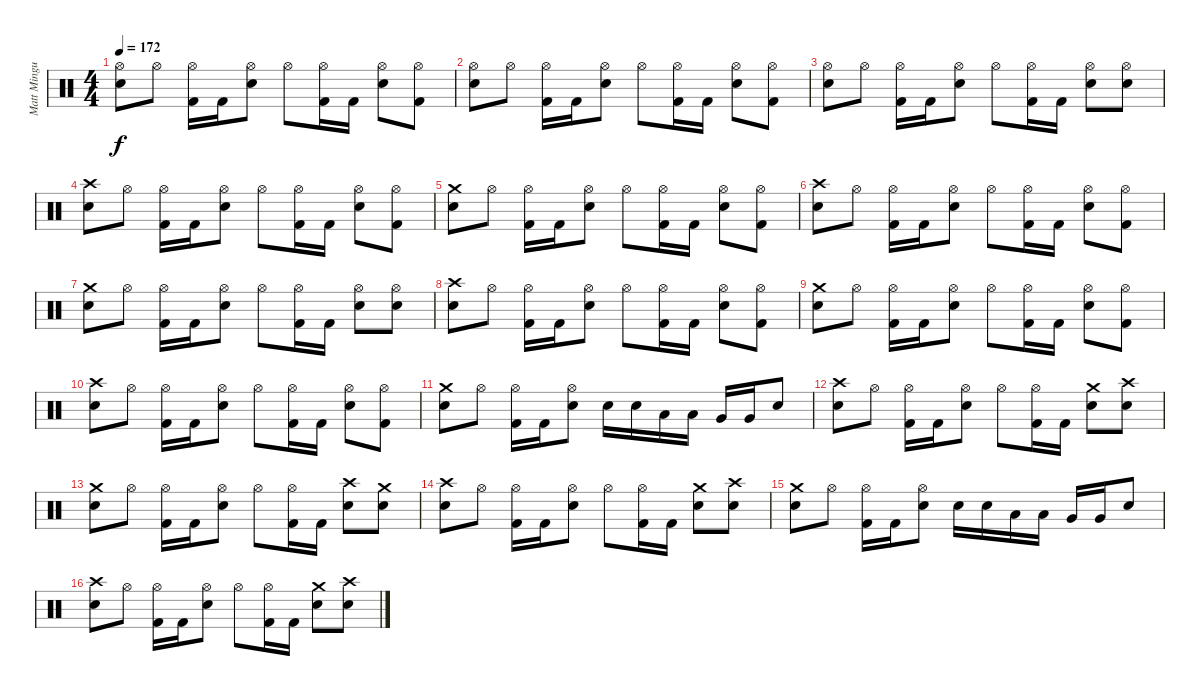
\track ("Matt Mingus (Drum Kit)" "Matt Mingu") {instrument percussion}
\staff {score}
\articulation defaults
\ts (4 4)
\tempo 172
\clef neutral
\ks c
("Hi-Hat (open)" "Electric Snare (hit)").8{dy f} "Hi-Hat (open)".8 ("Hi-Hat (open)" "Kick (hit) 2").16 "Kick (hit) 2".16 ("Hi-Hat (open)" "Electric Snare (hit)").8 "Hi-Hat (open)".8 ("Hi-Hat (open)" "Kick (hit) 2").16 "Kick (hit) 2".16 ("Hi-Hat (open)" "Electric Snare (hit)").8 ("Hi-Hat (open)" "Kick (hit) 2").8 |
("Hi-Hat (open)" "Electric Snare (hit)").8 "Hi-Hat (open)".8 ("Hi-Hat (open)" "Kick (hit) 2").16 "Kick (hit) 2".16 ("Hi-Hat (open)" "Electric Snare (hit)").8 "Hi-Hat (open)".8 ("Hi-Hat (open)" "Kick (hit) 2").16 "Kick (hit) 2".16 ("Hi-Hat (open)" "Electric Snare (hit)").8 ("Hi-Hat (open)" "Kick (hit) 2").8 |
("Hi-Hat (open)" "Electric Snare (hit)").8 "Hi-Hat (open)".8 ("Hi-Hat (open)" "Kick (hit) 2").16 "Kick (hit) 2".16 ("Hi-Hat (open)" "Electric Snare (hit)").8 "Hi-Hat (open)".8 ("Hi-Hat (open)" "Kick (hit) 2").16 "Kick (hit) 2".16 ("Hi-Hat (open)" "Electric Snare (hit)").8 ("Hi-Hat (open)" "Electric Snare (hit)").8 |
("Crash high (hit)" "Electric Snare (hit)").8 "Hi-Hat (open)".8 ("Hi-Hat (open)" "Kick (hit) 2").16 "Kick (hit) 2".16 ("Hi-Hat (open)" "Electric Snare (hit)").8 "Hi-Hat (open)".8 ("Hi-Hat (open)" "Kick (hit) 2").16 "Kick (hit) 2".16 ("Hi-Hat (open)" "Electric Snare (hit)").8 ("Hi-Hat (open)" "Kick (hit) 2").8 |
("Crash medium (hit)" "Electric Snare (hit)").8 "Hi-Hat (open)".8 ("Hi-Hat (open)" "Kick (hit) 2").16 "Kick (hit) 2".16 ("Hi-Hat (open)" "Electric Snare (hit)").8 "Hi-Hat (open)".8 ("Hi-Hat (open)" "Kick (hit) 2").16 "Kick (hit) 2".16 ("Hi-Hat (open)" "Electric Snare (hit)").8 ("Hi-Hat (open)" "Kick (hit) 2").8 |
("Crash high (hit)" "Electric Snare (hit)").8 "Hi-Hat (open)".8 ("Hi-Hat (open)" "Kick (hit) 2").16 "Kick (hit) 2".16 ("Hi-Hat (open)" "Electric Snare (hit)").8 "Hi-Hat (open)".8 ("Hi-Hat (open)" "Kick (hit) 2").16 "Kick (hit) 2".16 ("Hi-Hat (open)" "Electric Snare (hit)").8 ("Hi-Hat (open)" "Kick (hit) 2").8 |
("Crash medium (hit)" "Electric Snare (hit)").8 "Hi-Hat (open)".8 ("Hi-Hat (open)" "Kick (hit) 2").16 "Kick (hit) 2".16 ("Hi-Hat (open)" "Electric Snare (hit)").8 "Hi-Hat (open)".8 ("Hi-Hat (open)" "Kick (hit) 2").16 "Kick (hit) 2".16 ("Hi-Hat (open)" "Electric Snare (hit)").8 ("Hi-Hat (open)" "Electric Snare (hit)").8 |
("Crash high (hit)" "Electric Snare (hit)").8 "Hi-Hat (open)".8 ("Hi-Hat (open)" "Kick (hit) 2").16 "Kick (hit) 2".16 ("Hi-Hat (open)" "Electric Snare (hit)").8 "Hi-Hat (open)".8 ("Hi-Hat (open)" "Kick (hit) 2").16 "Kick (hit) 2".16 ("Hi-Hat (open)" "Electric Snare (hit)").8 ("Hi-Hat (open)" "Kick (hit) 2").8 |
("Crash medium (hit)" "Electric Snare (hit)").8 "Hi-Hat (open)".8 ("Hi-Hat (open)" "Kick (hit) 2").16 "Kick (hit) 2".16 ("Hi-Hat (open)" "Electric Snare (hit)").8 "Hi-Hat (open)".8 ("Hi-Hat (open)" "Kick (hit) 2").16 "Kick (hit) 2".16 ("Hi-Hat (open)" "Electric Snare (hit)").8 ("Hi-Hat (open)" "Kick (hit) 2").8 |
("Crash high (hit)" "Electric Snare (hit)").8 "Hi-Hat (open)".8 ("Hi-Hat (open)" "Kick (hit) 2").16 "Kick (hit) 2".16 ("Hi-Hat (open)" "Electric Snare (hit)").8 "Hi-Hat (open)".8 ("Hi-Hat (open)" "Kick (hit) 2").16 "Kick (hit) 2".16 ("Hi-Hat (open)" "Electric Snare (hit)").8 ("Hi-Hat (open)" "Kick (hit) 2").8 |
("Crash medium (hit)" "Electric Snare (hit)").8 "Hi-Hat (open)".8 ("Hi-Hat (open)" "Kick (hit) 2").16 "Kick (hit) 2".16 ("Hi-Hat (open)" "Electric Snare (hit)").8 "Electric Snare (hit)".16 "Electric Snare (hit)".16 "Low Tom (hit)".16 "Low Tom (hit)".16 "Very Low Tom (hit)".16 "Very Low Tom (hit)".16 "Electric Snare (hit)".8 |
("Crash high (hit)" "Electric Snare (hit)").8 "Hi-Hat (open)".8 ("Hi-Hat (open)" "Kick (hit) 2").16 "Kick (hit) 2".16 ("Hi-Hat (open)" "Electric Snare (hit)").8 "Hi-Hat (open)".8 ("Hi-Hat (open)" "Kick (hit) 2").16 "Kick (hit) 2".16 ("Crash medium (hit)" "Electric Snare (hit)").8 ("Crash high (hit)" "Electric Snare (hit)").8 |
("Crash medium (hit)" "Electric Snare (hit)").8 "Hi-Hat (open)".8 ("Hi-Hat (open)" "Kick (hit) 2").16 "Kick (hit) 2".16 ("Hi-Hat (open)" "Electric Snare (hit)").8 "Hi-Hat (open)".8 ("Hi-Hat (open)" "Kick (hit) 2").16 "Kick (hit) 2".16 ("Crash high (hit)" "Electric Snare (hit)").8 ("Crash medium (hit)" "Electric Snare (hit)").8 |
("Crash high (hit)" "Electric Snare (hit)").8 "Hi-Hat (open)".8 ("Hi-Hat (open)" "Kick (hit) 2").16 "Kick (hit) 2".16 ("Hi-Hat (open)" "Electric Snare (hit)").8 "Hi-Hat (open)".8 ("Hi-Hat (open)" "Kick (hit) 2").16 "Kick (hit) 2".16 ("Crash medium (hit)" "Electric Snare (hit)").8 ("Crash high (hit)" "Electric Snare (hit)").8 |
("Crash medium (hit)" "Electric Snare (hit)").8 "Hi-Hat (open)".8 ("Hi-Hat (open)" "Kick (hit) 2").16 "Kick (hit) 2".16 ("Hi-Hat (open)" "Electric Snare (hit)").8 "Electric Snare (hit)".16 "Electric Snare (hit)".16 "Low Tom (hit)".16 "Low Tom (hit)".16 "Very Low Tom (hit)".16 "Very Low Tom (hit)".16 "Electric Snare (hit)".8 |
("Crash high (hit)" "Electric Snare (hit)").8 "Hi-Hat (open)".8 ("Hi-Hat (open)" "Kick (hit) 2").16 "Kick (hit) 2".16 ("Hi-Hat (open)" "Electric Snare (hit)").8 "Hi-Hat (open)".8 ("Hi-Hat (open)" "Kick (hit) 2").16 "Kick (hit) 2".16 ("Crash medium (hit)" "Electric Snare (hit)").8 ("Crash high (hit)" "Electric Snare (hit)").8
